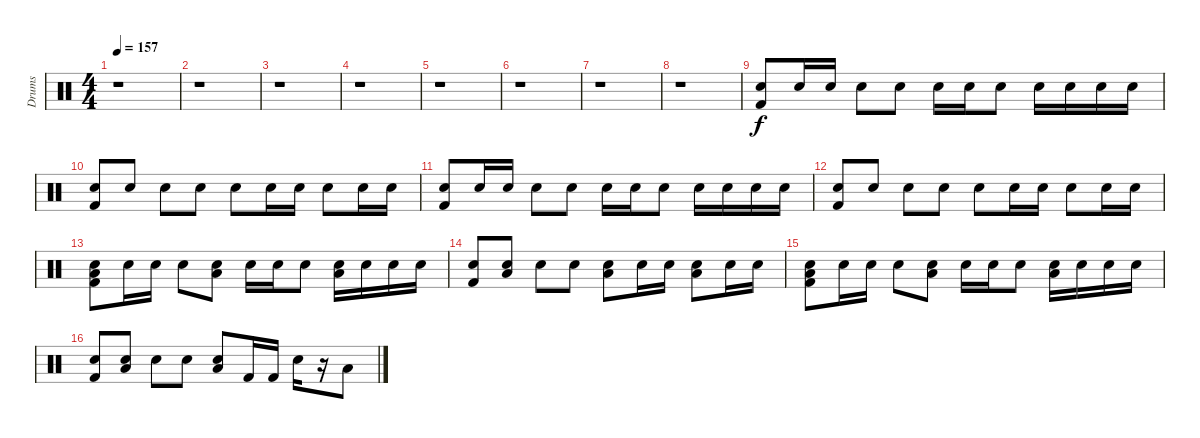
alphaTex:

\track ("Drums" "Drums") {instrument percussion}
\staff {score}
\articulation defaults
\ts (4 4)
\tempo 157
\clef neutral
\ks c
r.1{dy f} |
r.1 |
r.1 |
r.1 |
r.1 |
r.1 |
r.1 |
r.1 |
("Snare (hit) 2" "Kick (hit) 2").8 "Snare (hit) 2".16 "Snare (hit) 2".16 "Snare (hit) 2".8 "Snare (hit) 2".8 "Snare (hit) 2".16 "Snare (hit) 2".16 "Snare (hit) 2".8 "Snare (hit) 2".16 "Snare (hit) 2".16 "Snare (hit) 2".16 "Snare (hit) 2".16 |
("Snare (hit) 2" "Kick (hit) 2").8 "Snare (hit) 2".8 "Snare (hit) 2".8 "Snare (hit) 2".8 "Snare (hit) 2".8 "Snare (hit) 2".16 "Snare (hit) 2".16 "Snare (hit) 2".8 "Snare (hit) 2".16 "Snare (hit) 2".16 |
("Snare (hit) 2" "Kick (hit) 2").8 "Snare (hit) 2".16 "Snare (hit) 2".16 "Snare (hit) 2".8 "Snare (hit) 2".8 "Snare (hit) 2".16 "Snare (hit) 2".16 "Snare (hit) 2".8 "Snare (hit) 2".16 "Snare (hit) 2".16 "Snare (hit) 2".16 "Snare (hit) 2".16 |
("Snare (hit) 2" "Kick (hit) 2").8 "Snare (hit) 2".8 "Snare (hit) 2".8 "Snare (hit) 2".8 "Snare (hit) 2".8 "Snare (hit) 2".16 "Snare (hit) 2".16 "Snare (hit) 2".8 "Snare (hit) 2".16 "Snare (hit) 2".16 |
("Low Floor Tom (hit)" "Snare (hit) 2" "Kick (hit) 2").8 "Snare (hit) 2".16 "Snare (hit) 2".16 "Snare (hit) 2".8 ("Low Floor Tom (hit)" "Snare (hit) 2").8 "Snare (hit) 2".16 "Snare (hit) 2".16 "Snare (hit) 2".8 ("Low Floor Tom (hit)" "Snare (hit) 2").16 "Snare (hit) 2".16 "Snare (hit) 2".16 "Snare (hit) 2".16 |
("Snare (hit) 2" "Kick (hit) 2").8 ("Low Floor Tom (hit)" "Snare (hit) 2").8 "Snare (hit) 2".8 "Snare (hit) 2".8 ("Low Floor Tom (hit)" "Snare (hit) 2").8 "Snare (hit) 2".16 "Snare (hit) 2".16 ("Low Floor Tom (hit)" "Snare (hit) 2").8 "Snare (hit) 2".16 "Snare (hit) 2".16 |
("Low Floor Tom (hit)" "Snare (hit) 2" "Kick (hit) 2").8 "Snare (hit) 2".16 "Snare (hit) 2".16 "Snare (hit) 2".8 ("Low Floor Tom (hit)" "Snare (hit) 2").8 "Snare (hit) 2".16 "Snare (hit) 2".16 "Snare (hit) 2".8 ("Low Floor Tom (hit)" "Snare (hit) 2").16 "Snare (hit) 2".16 "Snare (hit) 2".16 "Snare (hit) 2".16 |
("Snare (hit) 2" "Kick (hit) 2").8 ("Low Floor Tom (hit)" "Snare (hit) 2").8 "Snare (hit) 2".8 "Snare (hit) 2".8 ("Low Floor Tom (hit)" "Snare (hit) 2").8 "Kick (hit) 2".16 "Kick (hit) 2".16 "Electric Snare (hit)".16 r.16 "Low Floor Tom (hit)".8
